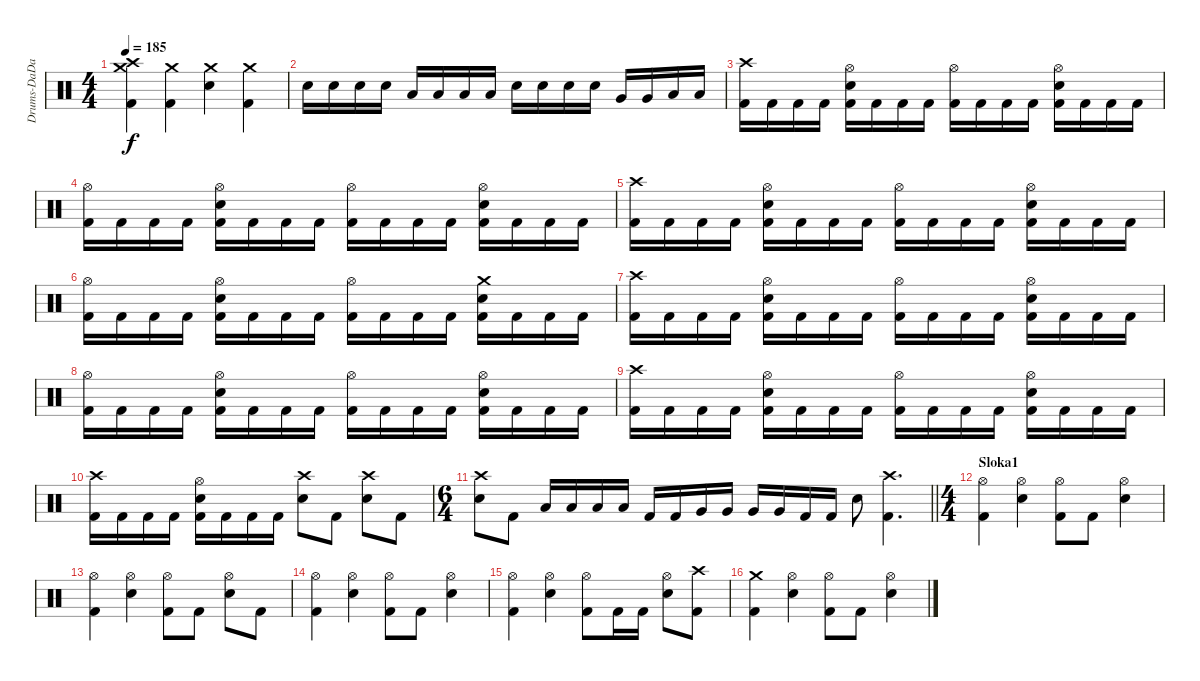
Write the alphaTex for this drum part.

\track ("Drums-DaDa" "Drums-DaDa") {instrument percussion}
\staff {score}
\articulation defaults
\ts (4 4)
\tempo 185
\clef neutral
\ks c
("Crash medium (hit)" "Crash high (hit)" "Kick (hit) 2").4{dy f} ("Crash medium (hit)" "Kick (hit) 2").4 ("Crash medium (hit)" "Electric Snare (hit)").4 ("Crash medium (hit)" "Kick (hit) 2").4 |
"Electric Snare (hit)".16 "Electric Snare (hit)".16 "Electric Snare (hit)".16 "Electric Snare (hit)".16 "Low Tom (hit)".16 "Low Tom (hit)".16 "Low Tom (hit)".16 "Low Tom (hit)".16 "Electric Snare (hit)".16 "Electric Snare (hit)".16 "Electric Snare (hit)".16 "Electric Snare (hit)".16 "Very Low Tom (hit)".16 "Very Low Tom (hit)".16 "Low Floor Tom (hit)".16 "Low Floor Tom (hit)".16 |
("Crash high (hit)" "Kick (hit) 2").16 "Kick (hit) 2".16 "Kick (hit) 2".16 "Kick (hit) 2".16 ("Hi-Hat (open)" "Electric Snare (hit)" "Kick (hit) 2").16 "Kick (hit) 2".16 "Kick (hit) 2".16 "Kick (hit) 2".16 ("Hi-Hat (open)" "Kick (hit) 2").16 "Kick (hit) 2".16 "Kick (hit) 2".16 "Kick (hit) 2".16 ("Hi-Hat (open)" "Electric Snare (hit)" "Kick (hit) 2").16 "Kick (hit) 2".16 "Kick (hit) 2".16 "Kick (hit) 2".16 |
("Hi-Hat (open)" "Kick (hit) 2").16 "Kick (hit) 2".16 "Kick (hit) 2".16 "Kick (hit) 2".16 ("Hi-Hat (open)" "Electric Snare (hit)" "Kick (hit) 2").16 "Kick (hit) 2".16 "Kick (hit) 2".16 "Kick (hit) 2".16 ("Hi-Hat (open)" "Kick (hit) 2").16 "Kick (hit) 2".16 "Kick (hit) 2".16 "Kick (hit) 2".16 ("Hi-Hat (open)" "Electric Snare (hit)" "Kick (hit) 2").16 "Kick (hit) 2".16 "Kick (hit) 2".16 "Kick (hit) 2".16 |
("Crash high (hit)" "Kick (hit) 2").16 "Kick (hit) 2".16 "Kick (hit) 2".16 "Kick (hit) 2".16 ("Hi-Hat (open)" "Electric Snare (hit)" "Kick (hit) 2").16 "Kick (hit) 2".16 "Kick (hit) 2".16 "Kick (hit) 2".16 ("Hi-Hat (open)" "Kick (hit) 2").16 "Kick (hit) 2".16 "Kick (hit) 2".16 "Kick (hit) 2".16 ("Hi-Hat (open)" "Electric Snare (hit)" "Kick (hit) 2").16 "Kick (hit) 2".16 "Kick (hit) 2".16 "Kick (hit) 2".16 |
("Hi-Hat (open)" "Kick (hit) 2").16 "Kick (hit) 2".16 "Kick (hit) 2".16 "Kick (hit) 2".16 ("Hi-Hat (open)" "Electric Snare (hit)" "Kick (hit) 2").16 "Kick (hit) 2".16 "Kick (hit) 2".16 "Kick (hit) 2".16 ("Hi-Hat (open)" "Kick (hit) 2").16 "Kick (hit) 2".16 "Kick (hit) 2".16 "Kick (hit) 2".16 ("Crash medium (hit)" "Electric Snare (hit)" "Kick (hit) 2").16 "Kick (hit) 2".16 "Kick (hit) 2".16 "Kick (hit) 2".16 |
("Crash high (hit)" "Kick (hit) 2").16 "Kick (hit) 2".16 "Kick (hit) 2".16 "Kick (hit) 2".16 ("Hi-Hat (open)" "Electric Snare (hit)" "Kick (hit) 2").16 "Kick (hit) 2".16 "Kick (hit) 2".16 "Kick (hit) 2".16 ("Hi-Hat (open)" "Kick (hit) 2").16 "Kick (hit) 2".16 "Kick (hit) 2".16 "Kick (hit) 2".16 ("Hi-Hat (open)" "Electric Snare (hit)" "Kick (hit) 2").16 "Kick (hit) 2".16 "Kick (hit) 2".16 "Kick (hit) 2".16 |
("Hi-Hat (open)" "Kick (hit) 2").16 "Kick (hit) 2".16 "Kick (hit) 2".16 "Kick (hit) 2".16 ("Hi-Hat (open)" "Electric Snare (hit)" "Kick (hit) 2").16 "Kick (hit) 2".16 "Kick (hit) 2".16 "Kick (hit) 2".16 ("Hi-Hat (open)" "Kick (hit) 2").16 "Kick (hit) 2".16 "Kick (hit) 2".16 "Kick (hit) 2".16 ("Hi-Hat (open)" "Electric Snare (hit)" "Kick (hit) 2").16 "Kick (hit) 2".16 "Kick (hit) 2".16 "Kick (hit) 2".16 |
("Crash high (hit)" "Kick (hit) 2").16 "Kick (hit) 2".16 "Kick (hit) 2".16 "Kick (hit) 2".16 ("Hi-Hat (open)" "Electric Snare (hit)" "Kick (hit) 2").16 "Kick (hit) 2".16 "Kick (hit) 2".16 "Kick (hit) 2".16 ("Hi-Hat (open)" "Kick (hit) 2").16 "Kick (hit) 2".16 "Kick (hit) 2".16 "Kick (hit) 2".16 ("Hi-Hat (open)" "Electric Snare (hit)" "Kick (hit) 2").16 "Kick (hit) 2".16 "Kick (hit) 2".16 "Kick (hit) 2".16 |
("Crash high (hit)" "Kick (hit) 2").16 "Kick (hit) 2".16 "Kick (hit) 2".16 "Kick (hit) 2".16 ("Hi-Hat (open)" "Electric Snare (hit)" "Kick (hit) 2").16 "Kick (hit) 2".16 "Kick (hit) 2".16 "Kick (hit) 2".16 ("Crash high (hit)" "Electric Snare (hit)").8 "Kick (hit) 2".8 ("Crash high (hit)" "Electric Snare (hit)").8 "Kick (hit) 2".8 |
\ts (6 4)
\barLineRight lightlight
("Crash high (hit)" "Electric Snare (hit)").8 "Kick (hit) 2".8 "Low Tom (hit)".16 "Low Tom (hit)".16 "Low Tom (hit)".16 "Low Tom (hit)".16 "Kick (hit) 2".16 "Kick (hit) 2".16 "Very Low Tom (hit)".16 "Very Low Tom (hit)".16 "Very Low Tom (hit)".16 "Very Low Tom (hit)".16 "Kick (hit) 2".16 "Kick (hit) 2".16 "Electric Snare (hit)".8 ("Crash high (hit)" "Kick (hit) 2").4{d} |
\ts (4 4)
\section ("" "Sloka1")
("Hi-Hat (open)" "Kick (hit) 2").4 ("Hi-Hat (open)" "Electric Snare (hit)").4 ("Hi-Hat (open)" "Kick (hit) 2").8 "Kick (hit) 2".8 ("Hi-Hat (open)" "Electric Snare (hit)").4 |
("Hi-Hat (open)" "Kick (hit) 2").4 ("Hi-Hat (open)" "Electric Snare (hit)").4 ("Hi-Hat (open)" "Kick (hit) 2").8 "Kick (hit) 2".8 ("Hi-Hat (open)" "Electric Snare (hit)").8 "Kick (hit) 2".8 |
("Hi-Hat (open)" "Kick (hit) 2").4 ("Hi-Hat (open)" "Electric Snare (hit)").4 ("Hi-Hat (open)" "Kick (hit) 2").8 "Kick (hit) 2".8 ("Hi-Hat (open)" "Electric Snare (hit)").4 |
("Hi-Hat (open)" "Kick (hit) 2").4 ("Hi-Hat (open)" "Electric Snare (hit)").4 ("Hi-Hat (open)" "Kick (hit) 2").8 "Kick (hit) 2".16 "Kick (hit) 2".16 ("Hi-Hat (open)" "Electric Snare (hit)").8 ("Crash high (hit)" "Kick (hit) 2").8 |
("Crash medium (hit)" "Kick (hit) 2").4 ("Hi-Hat (open)" "Electric Snare (hit)").4 ("Hi-Hat (open)" "Kick (hit) 2").8 "Kick (hit) 2".8 ("Hi-Hat (open)" "Electric Snare (hit)").4
